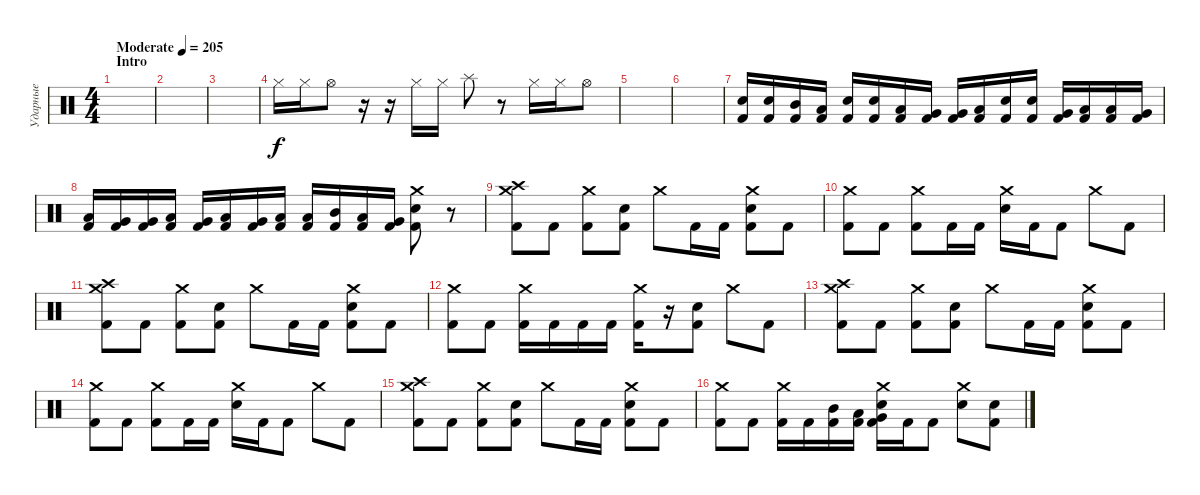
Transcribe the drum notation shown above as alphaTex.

\track ("Ударные" "Ударные") {instrument percussion}
\staff {score}
\articulation defaults
\ts (4 4)
\section ("" "Intro")
\tempo (205 "Moderate")
\clef neutral
\ks c
|
|
|
"Hi-Hat (closed)".16 "Hi-Hat (closed)".16 "Hi-Hat (open)".8 r.16 r.16 "Hi-Hat (closed)".16 "Hi-Hat (closed)".16 "Splash (hit)".8 r.8 "Hi-Hat (closed)".16 "Hi-Hat (closed)".16 "Hi-Hat (open)".8 |
|
|
("Snare (hit) 2" "Kick (hit) 2").16 ("Snare (hit) 2" "Kick (hit) 2").16 ("Mid Tom (hit)" "Kick (hit) 2").16 ("Low Tom (hit)" "Kick (hit) 2").16 ("Snare (hit) 2" "Kick (hit) 2").16 ("Snare (hit) 2" "Kick (hit) 2").16 ("Low Tom (hit)" "Kick (hit) 2").16 ("Very Low Tom (hit)" "Kick (hit) 2").16 ("Very Low Tom (hit)" "Kick (hit) 2").16 ("Low Floor Tom (hit)" "Kick (hit) 2").16 ("Snare (hit) 2" "Kick (hit) 2").16 ("Snare (hit) 2" "Kick (hit) 2").16 ("Very Low Tom (hit)" "Kick (hit) 2").16 ("Low Tom (hit)" "Kick (hit) 2").16 ("Low Tom (hit)" "Kick (hit) 2").16 ("Very Low Tom (hit)" "Kick (hit) 2").16 |
("Low Tom (hit)" "Kick (hit) 2").16 ("Very Low Tom (hit)" "Kick (hit) 2").16 ("Very Low Tom (hit)" "Kick (hit) 2").16 ("Low Floor Tom (hit)" "Kick (hit) 2").16 ("Very Low Tom (hit)" "Kick (hit) 2").16 ("Low Floor Tom (hit)" "Kick (hit) 2").16 ("Very Low Tom (hit)" "Kick (hit) 2").16 ("Low Tom (hit)" "Kick (hit) 2").16 ("Low Tom (hit)" "Kick (hit) 2").16 ("Mid Tom (hit)" "Kick (hit) 2").16 ("Low Tom (hit)" "Kick (hit) 2").16 ("Very Low Tom (hit)" "Kick (hit) 2").16 ("Crash medium (hit)" "Snare (hit) 2" "Kick (hit) 2").8 r.8 |
("Crash medium (hit)" "Crash high (hit)" "Kick (hit) 2").8 "Kick (hit) 2".8 ("Crash medium (hit)" "Kick (hit) 2").8 ("Snare (hit) 2" "Kick (hit) 2").8 "Crash medium (hit)".8 "Kick (hit) 2".16 "Kick (hit) 2".16 ("Crash medium (hit)" "Snare (hit) 2" "Kick (hit) 2").8 "Kick (hit) 2".8 |
("Crash medium (hit)" "Kick (hit) 2").8 "Kick (hit) 2".8 ("Crash medium (hit)" "Kick (hit) 2").8 "Kick (hit) 2".16 "Kick (hit) 2".16 ("Crash medium (hit)" "Snare (hit) 2").16 "Kick (hit) 2".16 "Kick (hit) 2".8 "Crash medium (hit)".8 "Kick (hit) 2".8 |
("Crash medium (hit)" "Crash high (hit)" "Kick (hit) 2").8 "Kick (hit) 2".8 ("Crash medium (hit)" "Kick (hit) 2").8 ("Snare (hit) 2" "Kick (hit) 2").8 "Crash medium (hit)".8 "Kick (hit) 2".16 "Kick (hit) 2".16 ("Crash medium (hit)" "Snare (hit) 2" "Kick (hit) 2").8 "Kick (hit) 2".8 |
("Crash medium (hit)" "Kick (hit) 2").8 "Kick (hit) 2".8 ("Crash medium (hit)" "Kick (hit) 2").16 "Kick (hit) 2".16 "Kick (hit) 2".16 "Kick (hit) 2".16 ("Crash medium (hit)" "Kick (hit) 2").16 r.16 ("Snare (hit) 2" "Kick (hit) 2").8 "Crash medium (hit)".8 "Kick (hit) 2".8 |
("Crash medium (hit)" "Crash high (hit)" "Kick (hit) 2").8 "Kick (hit) 2".8 ("Crash medium (hit)" "Kick (hit) 2").8 ("Snare (hit) 2" "Kick (hit) 2").8 "Crash medium (hit)".8 "Kick (hit) 2".16 "Kick (hit) 2".16 ("Crash medium (hit)" "Snare (hit) 2" "Kick (hit) 2").8 "Kick (hit) 2".8 |
("Crash medium (hit)" "Kick (hit) 2").8 "Kick (hit) 2".8 ("Crash medium (hit)" "Kick (hit) 2").8 "Kick (hit) 2".16 "Kick (hit) 2".16 ("Crash medium (hit)" "Snare (hit) 2").16 "Kick (hit) 2".16 "Kick (hit) 2".8 "Crash medium (hit)".8 "Kick (hit) 2".8 |
("Crash medium (hit)" "Crash high (hit)" "Kick (hit) 2").8 "Kick (hit) 2".8 ("Crash medium (hit)" "Kick (hit) 2").8 ("Snare (hit) 2" "Kick (hit) 2").8 "Crash medium (hit)".8 "Kick (hit) 2".16 "Kick (hit) 2".16 ("Crash medium (hit)" "Snare (hit) 2" "Kick (hit) 2").8 "Kick (hit) 2".8 |
("Crash medium (hit)" "Kick (hit) 2").8 "Kick (hit) 2".8 ("Crash medium (hit)" "Kick (hit) 2").16 "Kick (hit) 2".16 ("Mid Tom (hit)" "Kick (hit) 2").16 ("Low Tom (hit)" "Kick (hit) 2").16 ("Crash medium (hit)" "Snare (hit) 2" "Very Low Tom (hit)" "Kick (hit) 2").16 "Kick (hit) 2".16 "Kick (hit) 2".8 ("Crash medium (hit)" "Snare (hit) 2").8 ("Snare (hit) 2" "Kick (hit) 2").8
